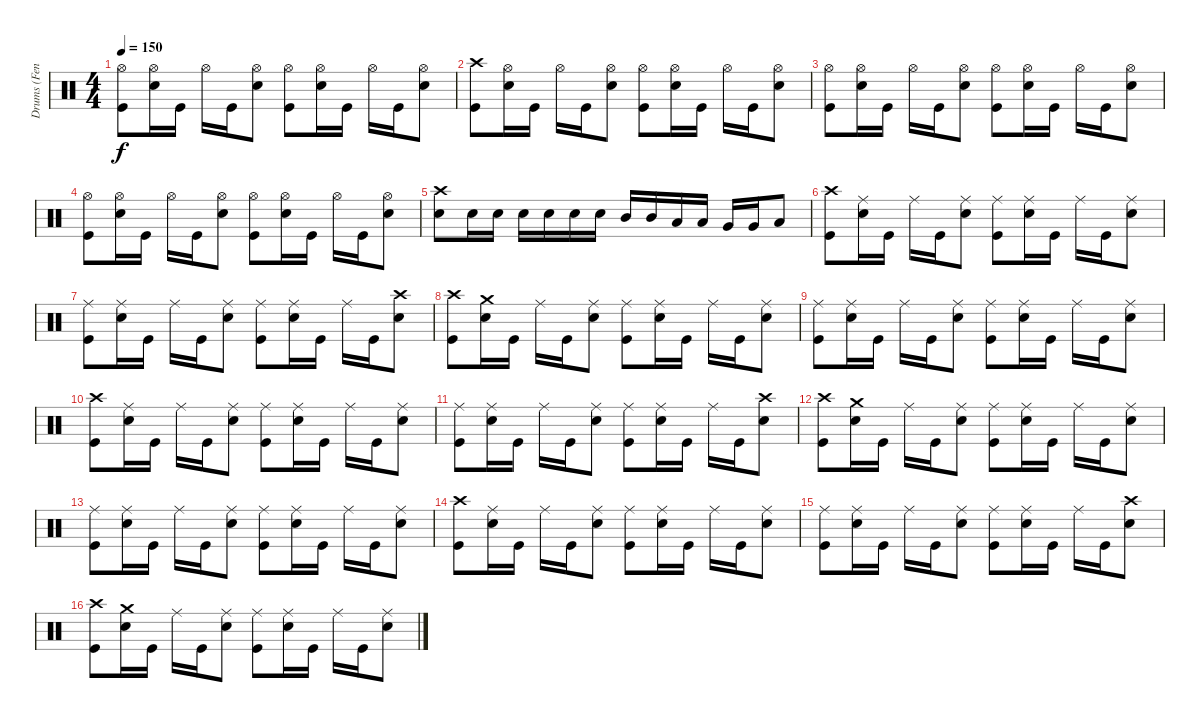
\track ("Drums (Fenriz)" "Drums (Fen") {instrument percussion}
\staff {score}
\articulation defaults
\ts (4 4)
\tempo 150
\clef neutral
\ks c
("Hi-Hat (open)" "Kick (hit)").8{dy f} ("Hi-Hat (open)" "Electric Snare (hit)").16 "Kick (hit)".16 "Hi-Hat (open)".16 "Kick (hit)".16 ("Hi-Hat (open)" "Electric Snare (hit)").8 ("Hi-Hat (open)" "Kick (hit)").8 ("Hi-Hat (open)" "Electric Snare (hit)").16 "Kick (hit)".16 "Hi-Hat (open)".16 "Kick (hit)".16 ("Hi-Hat (open)" "Electric Snare (hit)").8 |
("Crash high (hit)" "Kick (hit)").8 ("Hi-Hat (open)" "Electric Snare (hit)").16 "Kick (hit)".16 "Hi-Hat (open)".16 "Kick (hit)".16 ("Hi-Hat (open)" "Electric Snare (hit)").8 ("Hi-Hat (open)" "Kick (hit)").8 ("Hi-Hat (open)" "Electric Snare (hit)").16 "Kick (hit)".16 "Hi-Hat (open)".16 "Kick (hit)".16 ("Hi-Hat (open)" "Electric Snare (hit)").8 |
("Hi-Hat (open)" "Kick (hit)").8 ("Hi-Hat (open)" "Electric Snare (hit)").16 "Kick (hit)".16 "Hi-Hat (open)".16 "Kick (hit)".16 ("Hi-Hat (open)" "Electric Snare (hit)").8 ("Hi-Hat (open)" "Kick (hit)").8 ("Hi-Hat (open)" "Electric Snare (hit)").16 "Kick (hit)".16 "Hi-Hat (open)".16 "Kick (hit)".16 ("Hi-Hat (open)" "Electric Snare (hit)").8 |
("Hi-Hat (open)" "Kick (hit)").8 ("Hi-Hat (open)" "Electric Snare (hit)").16 "Kick (hit)".16 "Hi-Hat (open)".16 "Kick (hit)".16 ("Hi-Hat (open)" "Electric Snare (hit)").8 ("Hi-Hat (open)" "Kick (hit)").8 ("Hi-Hat (open)" "Electric Snare (hit)").16 "Kick (hit)".16 "Hi-Hat (open)".16 "Kick (hit)".16 ("Hi-Hat (open)" "Electric Snare (hit)").8 |
("Crash high (hit)" "Electric Snare (hit)").8 "Electric Snare (hit)".16 "Electric Snare (hit)".16 "Electric Snare (hit)".16 "Electric Snare (hit)".16 "Electric Snare (hit)".16 "Electric Snare (hit)".16 "Mid Tom (hit)".16 "Mid Tom (hit)".16 "Low Tom (hit)".16 "Low Tom (hit)".16 "Very Low Tom (hit)".16 "Very Low Tom (hit)".16 "Low Floor Tom (hit)".8 |
("Crash high (hit)" "Kick (hit)").8 ("Ride (middle)" "Electric Snare (hit)").16 "Kick (hit)".16 "Ride (middle)".16 "Kick (hit)".16 ("Ride (middle)" "Electric Snare (hit)").8 ("Ride (middle)" "Kick (hit)").8 ("Ride (middle)" "Electric Snare (hit)").16 "Kick (hit)".16 "Ride (middle)".16 "Kick (hit)".16 ("Ride (middle)" "Electric Snare (hit)").8 |
("Ride (middle)" "Kick (hit)").8 ("Ride (middle)" "Electric Snare (hit)").16 "Kick (hit)".16 "Ride (middle)".16 "Kick (hit)".16 ("Ride (middle)" "Electric Snare (hit)").8 ("Ride (middle)" "Kick (hit)").8 ("Ride (middle)" "Electric Snare (hit)").16 "Kick (hit)".16 "Ride (middle)".16 "Kick (hit)".16 ("Crash high (hit)" "Electric Snare (hit)").8 |
("Crash high (hit)" "Kick (hit)").8 ("Crash medium (hit)" "Electric Snare (hit)").16 "Kick (hit)".16 "Ride (middle)".16 "Kick (hit)".16 ("Ride (middle)" "Electric Snare (hit)").8 ("Ride (middle)" "Kick (hit)").8 ("Ride (middle)" "Electric Snare (hit)").16 "Kick (hit)".16 "Ride (middle)".16 "Kick (hit)".16 ("Ride (middle)" "Electric Snare (hit)").8 |
("Ride (middle)" "Kick (hit)").8 ("Ride (middle)" "Electric Snare (hit)").16 "Kick (hit)".16 "Ride (middle)".16 "Kick (hit)".16 ("Ride (middle)" "Electric Snare (hit)").8 ("Ride (middle)" "Kick (hit)").8 ("Ride (middle)" "Electric Snare (hit)").16 "Kick (hit)".16 "Ride (middle)".16 "Kick (hit)".16 ("Ride (middle)" "Electric Snare (hit)").8 |
("Crash high (hit)" "Kick (hit)").8 ("Ride (middle)" "Electric Snare (hit)").16 "Kick (hit)".16 "Ride (middle)".16 "Kick (hit)".16 ("Ride (middle)" "Electric Snare (hit)").8 ("Ride (middle)" "Kick (hit)").8 ("Ride (middle)" "Electric Snare (hit)").16 "Kick (hit)".16 "Ride (middle)".16 "Kick (hit)".16 ("Ride (middle)" "Electric Snare (hit)").8 |
("Ride (middle)" "Kick (hit)").8 ("Ride (middle)" "Electric Snare (hit)").16 "Kick (hit)".16 "Ride (middle)".16 "Kick (hit)".16 ("Ride (middle)" "Electric Snare (hit)").8 ("Ride (middle)" "Kick (hit)").8 ("Ride (middle)" "Electric Snare (hit)").16 "Kick (hit)".16 "Ride (middle)".16 "Kick (hit)".16 ("Crash high (hit)" "Electric Snare (hit)").8 |
("Crash high (hit)" "Kick (hit)").8 ("Crash medium (hit)" "Electric Snare (hit)").16 "Kick (hit)".16 "Ride (middle)".16 "Kick (hit)".16 ("Ride (middle)" "Electric Snare (hit)").8 ("Ride (middle)" "Kick (hit)").8 ("Ride (middle)" "Electric Snare (hit)").16 "Kick (hit)".16 "Ride (middle)".16 "Kick (hit)".16 ("Ride (middle)" "Electric Snare (hit)").8 |
("Ride (middle)" "Kick (hit)").8 ("Ride (middle)" "Electric Snare (hit)").16 "Kick (hit)".16 "Ride (middle)".16 "Kick (hit)".16 ("Ride (middle)" "Electric Snare (hit)").8 ("Ride (middle)" "Kick (hit)").8 ("Ride (middle)" "Electric Snare (hit)").16 "Kick (hit)".16 "Ride (middle)".16 "Kick (hit)".16 ("Ride (middle)" "Electric Snare (hit)").8 |
("Crash high (hit)" "Kick (hit)").8 ("Ride (middle)" "Electric Snare (hit)").16 "Kick (hit)".16 "Ride (middle)".16 "Kick (hit)".16 ("Ride (middle)" "Electric Snare (hit)").8 ("Ride (middle)" "Kick (hit)").8 ("Ride (middle)" "Electric Snare (hit)").16 "Kick (hit)".16 "Ride (middle)".16 "Kick (hit)".16 ("Ride (middle)" "Electric Snare (hit)").8 |
("Ride (middle)" "Kick (hit)").8 ("Ride (middle)" "Electric Snare (hit)").16 "Kick (hit)".16 "Ride (middle)".16 "Kick (hit)".16 ("Ride (middle)" "Electric Snare (hit)").8 ("Ride (middle)" "Kick (hit)").8 ("Ride (middle)" "Electric Snare (hit)").16 "Kick (hit)".16 "Ride (middle)".16 "Kick (hit)".16 ("Crash high (hit)" "Electric Snare (hit)").8 |
("Crash high (hit)" "Kick (hit)").8 ("Crash medium (hit)" "Electric Snare (hit)").16 "Kick (hit)".16 "Ride (middle)".16 "Kick (hit)".16 ("Ride (middle)" "Electric Snare (hit)").8 ("Ride (middle)" "Kick (hit)").8 ("Ride (middle)" "Electric Snare (hit)").16 "Kick (hit)".16 "Ride (middle)".16 "Kick (hit)".16 ("Ride (middle)" "Electric Snare (hit)").8
